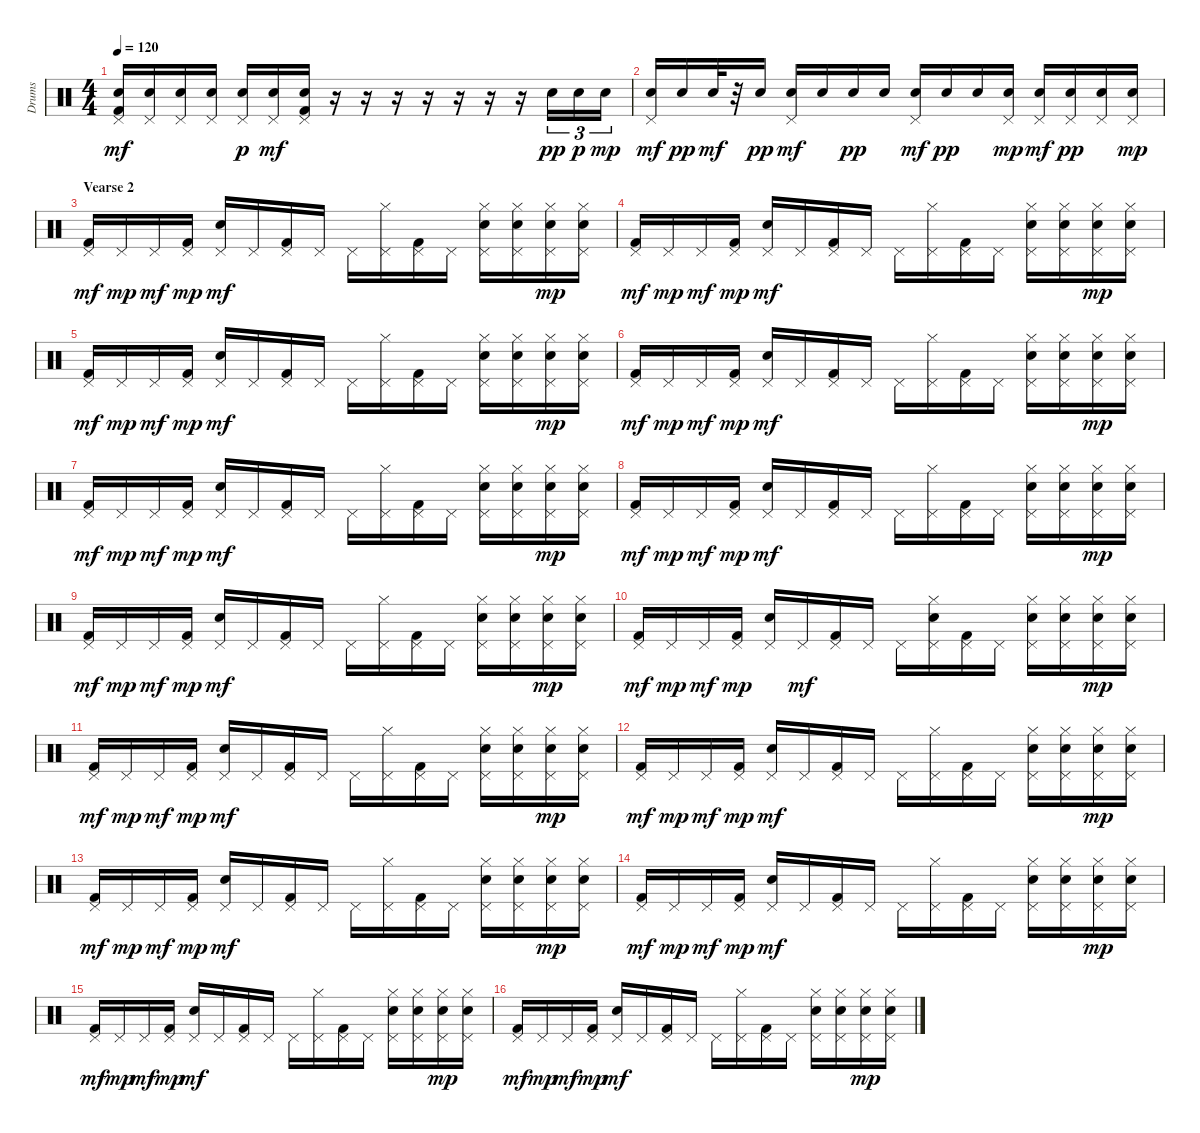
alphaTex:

\track ("Drums" "Drums") {instrument percussion}
\staff {score}
\articulation defaults
\ts (4 4)
\tempo 120
\clef neutral
\ks c
("Electric Snare (hit)" "Pedal Hi-Hat (hit)" "Kick (hit) 2").16{dy mf} ("Electric Snare (hit)" "Pedal Hi-Hat (hit)").16 ("Electric Snare (hit)" "Pedal Hi-Hat (hit)").16 ("Electric Snare (hit)" "Pedal Hi-Hat (hit)").16 ("Pedal Hi-Hat (hit)" "Electric Snare (hit)").16{dy p} ("Electric Snare (hit)" "Pedal Hi-Hat (hit)").16{dy mf} ("Electric Snare (hit)" "Pedal Hi-Hat (hit)" "Kick (hit) 2").16 r.16 r.16 r.16 r.16 r.16 r.16 r.16 "Electric Snare (hit)".16{tu (3 2) dy pp} "Electric Snare (hit)".16{tu (3 2) dy p} "Electric Snare (hit)".16{tu (3 2) dy mp} |
("Pedal Hi-Hat (hit)" "Electric Snare (hit)").16{dy mf} "Electric Snare (hit)".16{dy pp} "Electric Snare (hit)".32{dy mf} r.32 "Electric Snare (hit)".16{dy pp} ("Electric Snare (hit)" "Pedal Hi-Hat (hit)").16{dy mf} "Electric Snare (hit)".16 "Electric Snare (hit)".16{dy pp} "Electric Snare (hit)".16 ("Pedal Hi-Hat (hit)" "Electric Snare (hit)").16{dy mf} "Electric Snare (hit)".16{dy pp} "Electric Snare (hit)".16 ("Pedal Hi-Hat (hit)" "Electric Snare (hit)").16{dy mp} ("Pedal Hi-Hat (hit)" "Electric Snare (hit)").16{dy mf} ("Pedal Hi-Hat (hit)" "Electric Snare (hit)").16{dy pp} ("Pedal Hi-Hat (hit)" "Electric Snare (hit)").16 ("Pedal Hi-Hat (hit)" "Electric Snare (hit)").16{dy mp} |
\section ("" "Vearse 2")
("Pedal Hi-Hat (hit)" "Kick (hit) 2").16{dy mf} "Pedal Hi-Hat (hit)".16{dy mp} "Pedal Hi-Hat (hit)".16{dy mf} ("Pedal Hi-Hat (hit)" "Kick (hit) 2").16{dy mp} ("Pedal Hi-Hat (hit)" "Electric Snare (hit)").16{dy mf} "Pedal Hi-Hat (hit)".16 ("Pedal Hi-Hat (hit)" "Kick (hit) 2").16 "Pedal Hi-Hat (hit)".16 "Pedal Hi-Hat (hit)".16 ("Pedal Hi-Hat (hit)" "Hi-Hat (closed)").16 ("Pedal Hi-Hat (hit)" "Kick (hit) 2").16 "Pedal Hi-Hat (hit)".16 ("Pedal Hi-Hat (hit)" "Electric Snare (hit)" "Hi-Hat (closed)").16 ("Pedal Hi-Hat (hit)" "Electric Snare (hit)" "Hi-Hat (closed)").16 ("Pedal Hi-Hat (hit)" "Electric Snare (hit)" "Hi-Hat (closed)").16{dy mp} ("Pedal Hi-Hat (hit)" "Electric Snare (hit)" "Hi-Hat (closed)").16 |
("Pedal Hi-Hat (hit)" "Kick (hit) 2").16{dy mf} "Pedal Hi-Hat (hit)".16{dy mp} "Pedal Hi-Hat (hit)".16{dy mf} ("Pedal Hi-Hat (hit)" "Kick (hit) 2").16{dy mp} ("Pedal Hi-Hat (hit)" "Electric Snare (hit)").16{dy mf} "Pedal Hi-Hat (hit)".16 ("Pedal Hi-Hat (hit)" "Kick (hit) 2").16 "Pedal Hi-Hat (hit)".16 "Pedal Hi-Hat (hit)".16 ("Pedal Hi-Hat (hit)" "Hi-Hat (closed)").16 ("Pedal Hi-Hat (hit)" "Kick (hit) 2").16 "Pedal Hi-Hat (hit)".16 ("Pedal Hi-Hat (hit)" "Electric Snare (hit)" "Hi-Hat (closed)").16 ("Pedal Hi-Hat (hit)" "Electric Snare (hit)" "Hi-Hat (closed)").16 ("Pedal Hi-Hat (hit)" "Electric Snare (hit)" "Hi-Hat (closed)").16{dy mp} ("Pedal Hi-Hat (hit)" "Electric Snare (hit)" "Hi-Hat (closed)").16 |
("Pedal Hi-Hat (hit)" "Kick (hit) 2").16{dy mf} "Pedal Hi-Hat (hit)".16{dy mp} "Pedal Hi-Hat (hit)".16{dy mf} ("Pedal Hi-Hat (hit)" "Kick (hit) 2").16{dy mp} ("Pedal Hi-Hat (hit)" "Electric Snare (hit)").16{dy mf} "Pedal Hi-Hat (hit)".16 ("Pedal Hi-Hat (hit)" "Kick (hit) 2").16 "Pedal Hi-Hat (hit)".16 "Pedal Hi-Hat (hit)".16 ("Pedal Hi-Hat (hit)" "Hi-Hat (closed)").16 ("Pedal Hi-Hat (hit)" "Kick (hit) 2").16 "Pedal Hi-Hat (hit)".16 ("Pedal Hi-Hat (hit)" "Electric Snare (hit)" "Hi-Hat (closed)").16 ("Pedal Hi-Hat (hit)" "Electric Snare (hit)" "Hi-Hat (closed)").16 ("Pedal Hi-Hat (hit)" "Electric Snare (hit)" "Hi-Hat (closed)").16{dy mp} ("Pedal Hi-Hat (hit)" "Electric Snare (hit)" "Hi-Hat (closed)").16 |
("Pedal Hi-Hat (hit)" "Kick (hit) 2").16{dy mf} "Pedal Hi-Hat (hit)".16{dy mp} "Pedal Hi-Hat (hit)".16{dy mf} ("Pedal Hi-Hat (hit)" "Kick (hit) 2").16{dy mp} ("Pedal Hi-Hat (hit)" "Electric Snare (hit)").16{dy mf} "Pedal Hi-Hat (hit)".16 ("Pedal Hi-Hat (hit)" "Kick (hit) 2").16 "Pedal Hi-Hat (hit)".16 "Pedal Hi-Hat (hit)".16 ("Pedal Hi-Hat (hit)" "Hi-Hat (closed)").16 ("Pedal Hi-Hat (hit)" "Kick (hit) 2").16 "Pedal Hi-Hat (hit)".16 ("Pedal Hi-Hat (hit)" "Electric Snare (hit)" "Hi-Hat (closed)").16 ("Pedal Hi-Hat (hit)" "Electric Snare (hit)" "Hi-Hat (closed)").16 ("Pedal Hi-Hat (hit)" "Electric Snare (hit)" "Hi-Hat (closed)").16{dy mp} ("Pedal Hi-Hat (hit)" "Electric Snare (hit)" "Hi-Hat (closed)").16 |
("Pedal Hi-Hat (hit)" "Kick (hit) 2").16{dy mf} "Pedal Hi-Hat (hit)".16{dy mp} "Pedal Hi-Hat (hit)".16{dy mf} ("Pedal Hi-Hat (hit)" "Kick (hit) 2").16{dy mp} ("Pedal Hi-Hat (hit)" "Electric Snare (hit)").16{dy mf} "Pedal Hi-Hat (hit)".16 ("Pedal Hi-Hat (hit)" "Kick (hit) 2").16 "Pedal Hi-Hat (hit)".16 "Pedal Hi-Hat (hit)".16 ("Pedal Hi-Hat (hit)" "Hi-Hat (closed)").16 ("Pedal Hi-Hat (hit)" "Kick (hit) 2").16 "Pedal Hi-Hat (hit)".16 ("Pedal Hi-Hat (hit)" "Electric Snare (hit)" "Hi-Hat (closed)").16 ("Pedal Hi-Hat (hit)" "Electric Snare (hit)" "Hi-Hat (closed)").16 ("Pedal Hi-Hat (hit)" "Electric Snare (hit)" "Hi-Hat (closed)").16{dy mp} ("Pedal Hi-Hat (hit)" "Electric Snare (hit)" "Hi-Hat (closed)").16 |
("Pedal Hi-Hat (hit)" "Kick (hit) 2").16{dy mf} "Pedal Hi-Hat (hit)".16{dy mp} "Pedal Hi-Hat (hit)".16{dy mf} ("Pedal Hi-Hat (hit)" "Kick (hit) 2").16{dy mp} ("Pedal Hi-Hat (hit)" "Electric Snare (hit)").16{dy mf} "Pedal Hi-Hat (hit)".16 ("Pedal Hi-Hat (hit)" "Kick (hit) 2").16 "Pedal Hi-Hat (hit)".16 "Pedal Hi-Hat (hit)".16 ("Pedal Hi-Hat (hit)" "Hi-Hat (closed)").16 ("Pedal Hi-Hat (hit)" "Kick (hit) 2").16 "Pedal Hi-Hat (hit)".16 ("Pedal Hi-Hat (hit)" "Electric Snare (hit)" "Hi-Hat (closed)").16 ("Pedal Hi-Hat (hit)" "Electric Snare (hit)" "Hi-Hat (closed)").16 ("Pedal Hi-Hat (hit)" "Electric Snare (hit)" "Hi-Hat (closed)").16{dy mp} ("Pedal Hi-Hat (hit)" "Electric Snare (hit)" "Hi-Hat (closed)").16 |
("Pedal Hi-Hat (hit)" "Kick (hit) 2").16{dy mf} "Pedal Hi-Hat (hit)".16{dy mp} "Pedal Hi-Hat (hit)".16{dy mf} ("Pedal Hi-Hat (hit)" "Kick (hit) 2").16{dy mp} ("Pedal Hi-Hat (hit)" "Electric Snare (hit)").16{dy mf} "Pedal Hi-Hat (hit)".16 ("Pedal Hi-Hat (hit)" "Kick (hit) 2").16 "Pedal Hi-Hat (hit)".16 "Pedal Hi-Hat (hit)".16 ("Pedal Hi-Hat (hit)" "Hi-Hat (closed)").16 ("Pedal Hi-Hat (hit)" "Kick (hit) 2").16 "Pedal Hi-Hat (hit)".16 ("Pedal Hi-Hat (hit)" "Electric Snare (hit)" "Hi-Hat (closed)").16 ("Pedal Hi-Hat (hit)" "Electric Snare (hit)" "Hi-Hat (closed)").16 ("Pedal Hi-Hat (hit)" "Electric Snare (hit)" "Hi-Hat (closed)").16{dy mp} ("Pedal Hi-Hat (hit)" "Electric Snare (hit)" "Hi-Hat (closed)").16 |
("Pedal Hi-Hat (hit)" "Kick (hit) 2").16{dy mf} "Pedal Hi-Hat (hit)".16{dy mp} "Pedal Hi-Hat (hit)".16{dy mf} ("Pedal Hi-Hat (hit)" "Kick (hit) 2").16{dy mp} ("Pedal Hi-Hat (hit)" "Electric Snare (hit)").16 "Pedal Hi-Hat (hit)".16{dy mf} ("Pedal Hi-Hat (hit)" "Kick (hit) 2").16 "Pedal Hi-Hat (hit)".16 "Pedal Hi-Hat (hit)".16 ("Pedal Hi-Hat (hit)" "Hi-Hat (closed)" "Electric Snare (hit)").16 ("Pedal Hi-Hat (hit)" "Kick (hit) 2").16 "Pedal Hi-Hat (hit)".16 ("Pedal Hi-Hat (hit)" "Electric Snare (hit)" "Hi-Hat (closed)").16 ("Pedal Hi-Hat (hit)" "Electric Snare (hit)" "Hi-Hat (closed)").16 ("Pedal Hi-Hat (hit)" "Electric Snare (hit)" "Hi-Hat (closed)").16{dy mp} ("Pedal Hi-Hat (hit)" "Electric Snare (hit)" "Hi-Hat (closed)").16 |
("Pedal Hi-Hat (hit)" "Kick (hit) 2").16{dy mf} "Pedal Hi-Hat (hit)".16{dy mp} "Pedal Hi-Hat (hit)".16{dy mf} ("Pedal Hi-Hat (hit)" "Kick (hit) 2").16{dy mp} ("Pedal Hi-Hat (hit)" "Electric Snare (hit)").16{dy mf} "Pedal Hi-Hat (hit)".16 ("Pedal Hi-Hat (hit)" "Kick (hit) 2").16 "Pedal Hi-Hat (hit)".16 "Pedal Hi-Hat (hit)".16 ("Pedal Hi-Hat (hit)" "Hi-Hat (closed)").16 ("Pedal Hi-Hat (hit)" "Kick (hit) 2").16 "Pedal Hi-Hat (hit)".16 ("Pedal Hi-Hat (hit)" "Electric Snare (hit)" "Hi-Hat (closed)").16 ("Pedal Hi-Hat (hit)" "Electric Snare (hit)" "Hi-Hat (closed)").16 ("Pedal Hi-Hat (hit)" "Electric Snare (hit)" "Hi-Hat (closed)").16{dy mp} ("Pedal Hi-Hat (hit)" "Electric Snare (hit)" "Hi-Hat (closed)").16 |
("Pedal Hi-Hat (hit)" "Kick (hit) 2").16{dy mf} "Pedal Hi-Hat (hit)".16{dy mp} "Pedal Hi-Hat (hit)".16{dy mf} ("Pedal Hi-Hat (hit)" "Kick (hit) 2").16{dy mp} ("Pedal Hi-Hat (hit)" "Electric Snare (hit)").16{dy mf} "Pedal Hi-Hat (hit)".16 ("Pedal Hi-Hat (hit)" "Kick (hit) 2").16 "Pedal Hi-Hat (hit)".16 "Pedal Hi-Hat (hit)".16 ("Pedal Hi-Hat (hit)" "Hi-Hat (closed)").16 ("Pedal Hi-Hat (hit)" "Kick (hit) 2").16 "Pedal Hi-Hat (hit)".16 ("Pedal Hi-Hat (hit)" "Electric Snare (hit)" "Hi-Hat (closed)").16 ("Pedal Hi-Hat (hit)" "Electric Snare (hit)" "Hi-Hat (closed)").16 ("Pedal Hi-Hat (hit)" "Electric Snare (hit)" "Hi-Hat (closed)").16{dy mp} ("Pedal Hi-Hat (hit)" "Electric Snare (hit)" "Hi-Hat (closed)").16 |
("Pedal Hi-Hat (hit)" "Kick (hit) 2").16{dy mf} "Pedal Hi-Hat (hit)".16{dy mp} "Pedal Hi-Hat (hit)".16{dy mf} ("Pedal Hi-Hat (hit)" "Kick (hit) 2").16{dy mp} ("Pedal Hi-Hat (hit)" "Electric Snare (hit)").16{dy mf} "Pedal Hi-Hat (hit)".16 ("Pedal Hi-Hat (hit)" "Kick (hit) 2").16 "Pedal Hi-Hat (hit)".16 "Pedal Hi-Hat (hit)".16 ("Pedal Hi-Hat (hit)" "Hi-Hat (closed)").16 ("Pedal Hi-Hat (hit)" "Kick (hit) 2").16 "Pedal Hi-Hat (hit)".16 ("Pedal Hi-Hat (hit)" "Electric Snare (hit)" "Hi-Hat (closed)").16 ("Pedal Hi-Hat (hit)" "Electric Snare (hit)" "Hi-Hat (closed)").16 ("Pedal Hi-Hat (hit)" "Electric Snare (hit)" "Hi-Hat (closed)").16{dy mp} ("Pedal Hi-Hat (hit)" "Electric Snare (hit)" "Hi-Hat (closed)").16 |
("Pedal Hi-Hat (hit)" "Kick (hit) 2").16{dy mf} "Pedal Hi-Hat (hit)".16{dy mp} "Pedal Hi-Hat (hit)".16{dy mf} ("Pedal Hi-Hat (hit)" "Kick (hit) 2").16{dy mp} ("Pedal Hi-Hat (hit)" "Electric Snare (hit)").16{dy mf} "Pedal Hi-Hat (hit)".16 ("Pedal Hi-Hat (hit)" "Kick (hit) 2").16 "Pedal Hi-Hat (hit)".16 "Pedal Hi-Hat (hit)".16 ("Pedal Hi-Hat (hit)" "Hi-Hat (closed)").16 ("Pedal Hi-Hat (hit)" "Kick (hit) 2").16 "Pedal Hi-Hat (hit)".16 ("Pedal Hi-Hat (hit)" "Electric Snare (hit)" "Hi-Hat (closed)").16 ("Pedal Hi-Hat (hit)" "Electric Snare (hit)" "Hi-Hat (closed)").16 ("Pedal Hi-Hat (hit)" "Electric Snare (hit)" "Hi-Hat (closed)").16{dy mp} ("Pedal Hi-Hat (hit)" "Electric Snare (hit)" "Hi-Hat (closed)").16 |
("Pedal Hi-Hat (hit)" "Kick (hit) 2").16{dy mf} "Pedal Hi-Hat (hit)".16{dy mp} "Pedal Hi-Hat (hit)".16{dy mf} ("Pedal Hi-Hat (hit)" "Kick (hit) 2").16{dy mp} ("Pedal Hi-Hat (hit)" "Electric Snare (hit)").16{dy mf} "Pedal Hi-Hat (hit)".16 ("Pedal Hi-Hat (hit)" "Kick (hit) 2").16 "Pedal Hi-Hat (hit)".16 "Pedal Hi-Hat (hit)".16 ("Pedal Hi-Hat (hit)" "Hi-Hat (closed)").16 ("Pedal Hi-Hat (hit)" "Kick (hit) 2").16 "Pedal Hi-Hat (hit)".16 ("Pedal Hi-Hat (hit)" "Electric Snare (hit)" "Hi-Hat (closed)").16 ("Pedal Hi-Hat (hit)" "Electric Snare (hit)" "Hi-Hat (closed)").16 ("Pedal Hi-Hat (hit)" "Electric Snare (hit)" "Hi-Hat (closed)").16{dy mp} ("Pedal Hi-Hat (hit)" "Electric Snare (hit)" "Hi-Hat (closed)").16 |
("Pedal Hi-Hat (hit)" "Kick (hit) 2").16{dy mf} "Pedal Hi-Hat (hit)".16{dy mp} "Pedal Hi-Hat (hit)".16{dy mf} ("Pedal Hi-Hat (hit)" "Kick (hit) 2").16{dy mp} ("Pedal Hi-Hat (hit)" "Electric Snare (hit)").16{dy mf} "Pedal Hi-Hat (hit)".16 ("Pedal Hi-Hat (hit)" "Kick (hit) 2").16 "Pedal Hi-Hat (hit)".16 "Pedal Hi-Hat (hit)".16 ("Pedal Hi-Hat (hit)" "Hi-Hat (closed)").16 ("Pedal Hi-Hat (hit)" "Kick (hit) 2").16 "Pedal Hi-Hat (hit)".16 ("Pedal Hi-Hat (hit)" "Electric Snare (hit)" "Hi-Hat (closed)").16 ("Pedal Hi-Hat (hit)" "Electric Snare (hit)" "Hi-Hat (closed)").16 ("Pedal Hi-Hat (hit)" "Electric Snare (hit)" "Hi-Hat (closed)").16{dy mp} ("Pedal Hi-Hat (hit)" "Electric Snare (hit)" "Hi-Hat (closed)").16
